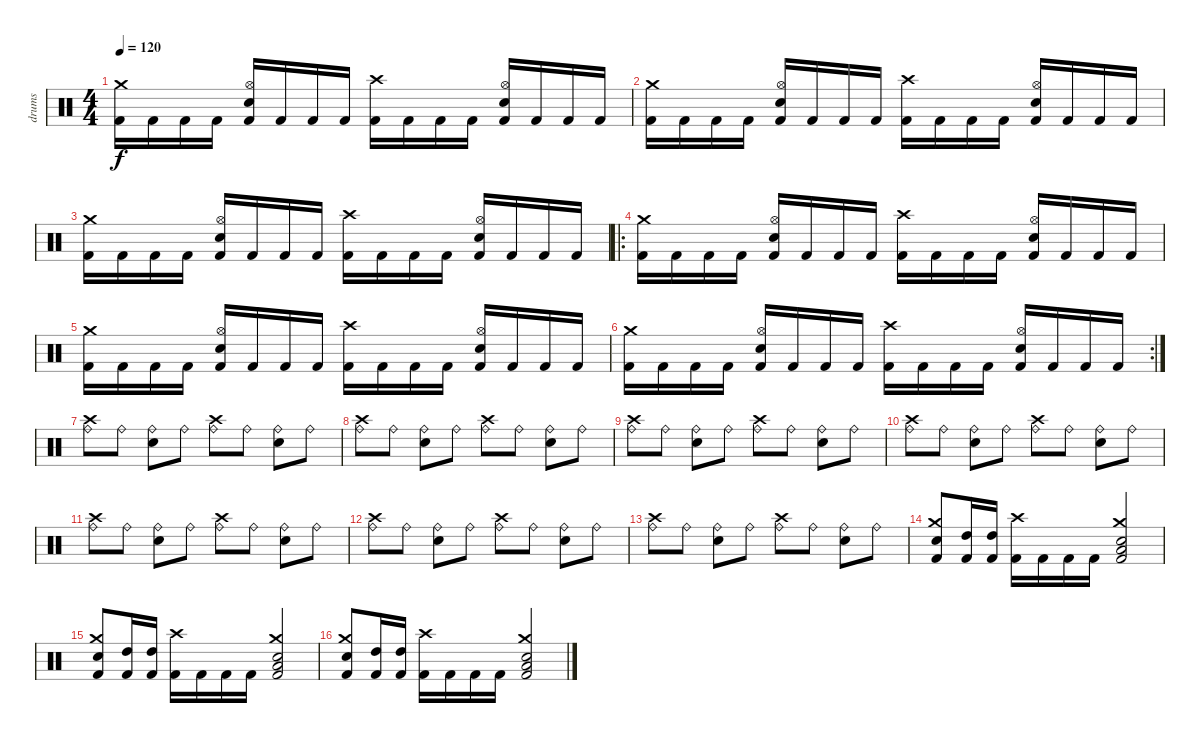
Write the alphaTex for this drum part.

\track ("drums" "drums") {instrument percussion}
\staff {score}
\articulation defaults
\ts (4 4)
\tempo 120
\clef neutral
\ks c
("Kick (hit) 2" "Crash medium (hit)").16{dy f} "Kick (hit) 2".16 "Kick (hit) 2".16 "Kick (hit) 2".16 ("Kick (hit) 2" "Hi-Hat (open)" "Electric Snare (hit)").16 "Kick (hit) 2".16 "Kick (hit) 2".16 "Kick (hit) 2".16 ("Kick (hit) 2" "Crash high (hit)").16 "Kick (hit) 2".16 "Kick (hit) 2".16 "Kick (hit) 2".16 ("Kick (hit) 2" "Hi-Hat (open)" "Electric Snare (hit)").16 "Kick (hit) 2".16 "Kick (hit) 2".16 "Kick (hit) 2".16 |
("Kick (hit) 2" "Crash medium (hit)").16 "Kick (hit) 2".16 "Kick (hit) 2".16 "Kick (hit) 2".16 ("Kick (hit) 2" "Hi-Hat (open)" "Electric Snare (hit)").16 "Kick (hit) 2".16 "Kick (hit) 2".16 "Kick (hit) 2".16 ("Kick (hit) 2" "Crash high (hit)").16 "Kick (hit) 2".16 "Kick (hit) 2".16 "Kick (hit) 2".16 ("Kick (hit) 2" "Hi-Hat (open)" "Electric Snare (hit)").16 "Kick (hit) 2".16 "Kick (hit) 2".16 "Kick (hit) 2".16 |
("Kick (hit) 2" "Crash medium (hit)").16 "Kick (hit) 2".16 "Kick (hit) 2".16 "Kick (hit) 2".16 ("Kick (hit) 2" "Hi-Hat (open)" "Electric Snare (hit)").16 "Kick (hit) 2".16 "Kick (hit) 2".16 "Kick (hit) 2".16 ("Kick (hit) 2" "Crash high (hit)").16 "Kick (hit) 2".16 "Kick (hit) 2".16 "Kick (hit) 2".16 ("Kick (hit) 2" "Hi-Hat (open)" "Electric Snare (hit)").16 "Kick (hit) 2".16 "Kick (hit) 2".16 "Kick (hit) 2".16 |
\ro
("Kick (hit) 2" "Crash medium (hit)").16 "Kick (hit) 2".16 "Kick (hit) 2".16 "Kick (hit) 2".16 ("Kick (hit) 2" "Hi-Hat (open)" "Electric Snare (hit)").16 "Kick (hit) 2".16 "Kick (hit) 2".16 "Kick (hit) 2".16 ("Kick (hit) 2" "Crash high (hit)").16 "Kick (hit) 2".16 "Kick (hit) 2".16 "Kick (hit) 2".16 ("Kick (hit) 2" "Hi-Hat (open)" "Electric Snare (hit)").16 "Kick (hit) 2".16 "Kick (hit) 2".16 "Kick (hit) 2".16 |
("Kick (hit) 2" "Crash medium (hit)").16 "Kick (hit) 2".16 "Kick (hit) 2".16 "Kick (hit) 2".16 ("Kick (hit) 2" "Hi-Hat (open)" "Electric Snare (hit)").16 "Kick (hit) 2".16 "Kick (hit) 2".16 "Kick (hit) 2".16 ("Kick (hit) 2" "Crash high (hit)").16 "Kick (hit) 2".16 "Kick (hit) 2".16 "Kick (hit) 2".16 ("Kick (hit) 2" "Hi-Hat (open)" "Electric Snare (hit)").16 "Kick (hit) 2".16 "Kick (hit) 2".16 "Kick (hit) 2".16 |
\rc 2
("Kick (hit) 2" "Crash medium (hit)").16 "Kick (hit) 2".16 "Kick (hit) 2".16 "Kick (hit) 2".16 ("Kick (hit) 2" "Hi-Hat (open)" "Electric Snare (hit)").16 "Kick (hit) 2".16 "Kick (hit) 2".16 "Kick (hit) 2".16 ("Kick (hit) 2" "Crash high (hit)").16 "Kick (hit) 2".16 "Kick (hit) 2".16 "Kick (hit) 2".16 ("Kick (hit) 2" "Hi-Hat (open)" "Electric Snare (hit)").16 "Kick (hit) 2".16 "Kick (hit) 2".16 "Kick (hit) 2".16 |
("Ride (bell)" "Crash high (hit)").8 "Ride (bell)".8 ("Ride (bell)" "Electric Snare (hit)").8 "Ride (bell)".8 ("Ride (bell)" "Crash high (hit)").8 "Ride (bell)".8 ("Ride (bell)" "Electric Snare (hit)").8 "Ride (bell)".8 |
("Ride (bell)" "Crash high (hit)").8 "Ride (bell)".8 ("Ride (bell)" "Electric Snare (hit)").8 "Ride (bell)".8 ("Ride (bell)" "Crash high (hit)").8 "Ride (bell)".8 ("Ride (bell)" "Electric Snare (hit)").8 "Ride (bell)".8 |
("Ride (bell)" "Crash high (hit)").8 "Ride (bell)".8 ("Ride (bell)" "Electric Snare (hit)").8 "Ride (bell)".8 ("Ride (bell)" "Crash high (hit)").8 "Ride (bell)".8 ("Ride (bell)" "Electric Snare (hit)").8 "Ride (bell)".8 |
("Ride (bell)" "Crash high (hit)").8 "Ride (bell)".8 ("Ride (bell)" "Electric Snare (hit)").8 "Ride (bell)".8 ("Ride (bell)" "Crash high (hit)").8 "Ride (bell)".8 ("Ride (bell)" "Electric Snare (hit)").8 "Ride (bell)".8 |
("Ride (bell)" "Crash high (hit)").8 "Ride (bell)".8 ("Ride (bell)" "Electric Snare (hit)").8 "Ride (bell)".8 ("Ride (bell)" "Crash high (hit)").8 "Ride (bell)".8 ("Ride (bell)" "Electric Snare (hit)").8 "Ride (bell)".8 |
("Ride (bell)" "Crash high (hit)").8 "Ride (bell)".8 ("Ride (bell)" "Electric Snare (hit)").8 "Ride (bell)".8 ("Ride (bell)" "Crash high (hit)").8 "Ride (bell)".8 ("Ride (bell)" "Electric Snare (hit)").8 "Ride (bell)".8 |
("Ride (bell)" "Crash high (hit)").8 "Ride (bell)".8 ("Ride (bell)" "Electric Snare (hit)").8 "Ride (bell)".8 ("Ride (bell)" "Crash high (hit)").8 "Ride (bell)".8 ("Ride (bell)" "Electric Snare (hit)").8 "Ride (bell)".8 |
("Electric Snare (hit)" "Crash medium (hit)" "Kick (hit) 2").8 ("High Tom (hit)" "Kick (hit) 2").16 ("High Tom (hit)" "Kick (hit) 2").16 ("Crash high (hit)" "Kick (hit) 2").16 "Kick (hit) 2".16 "Kick (hit) 2".16 "Kick (hit) 2".16 ("Low Tom (hit)" "Electric Snare (hit)" "Crash medium (hit)" "Kick (hit) 2").2 |
("Electric Snare (hit)" "Crash medium (hit)" "Kick (hit) 2").8 ("High Tom (hit)" "Kick (hit) 2").16 ("High Tom (hit)" "Kick (hit) 2").16 ("Crash high (hit)" "Kick (hit) 2").16 "Kick (hit) 2".16 "Kick (hit) 2".16 "Kick (hit) 2".16 ("Low Tom (hit)" "Electric Snare (hit)" "Crash medium (hit)" "Kick (hit) 2").2 |
("Electric Snare (hit)" "Crash medium (hit)" "Kick (hit) 2").8 ("High Tom (hit)" "Kick (hit) 2").16 ("High Tom (hit)" "Kick (hit) 2").16 ("Crash high (hit)" "Kick (hit) 2").16 "Kick (hit) 2".16 "Kick (hit) 2".16 "Kick (hit) 2".16 ("Low Tom (hit)" "Electric Snare (hit)" "Crash medium (hit)" "Kick (hit) 2").2
